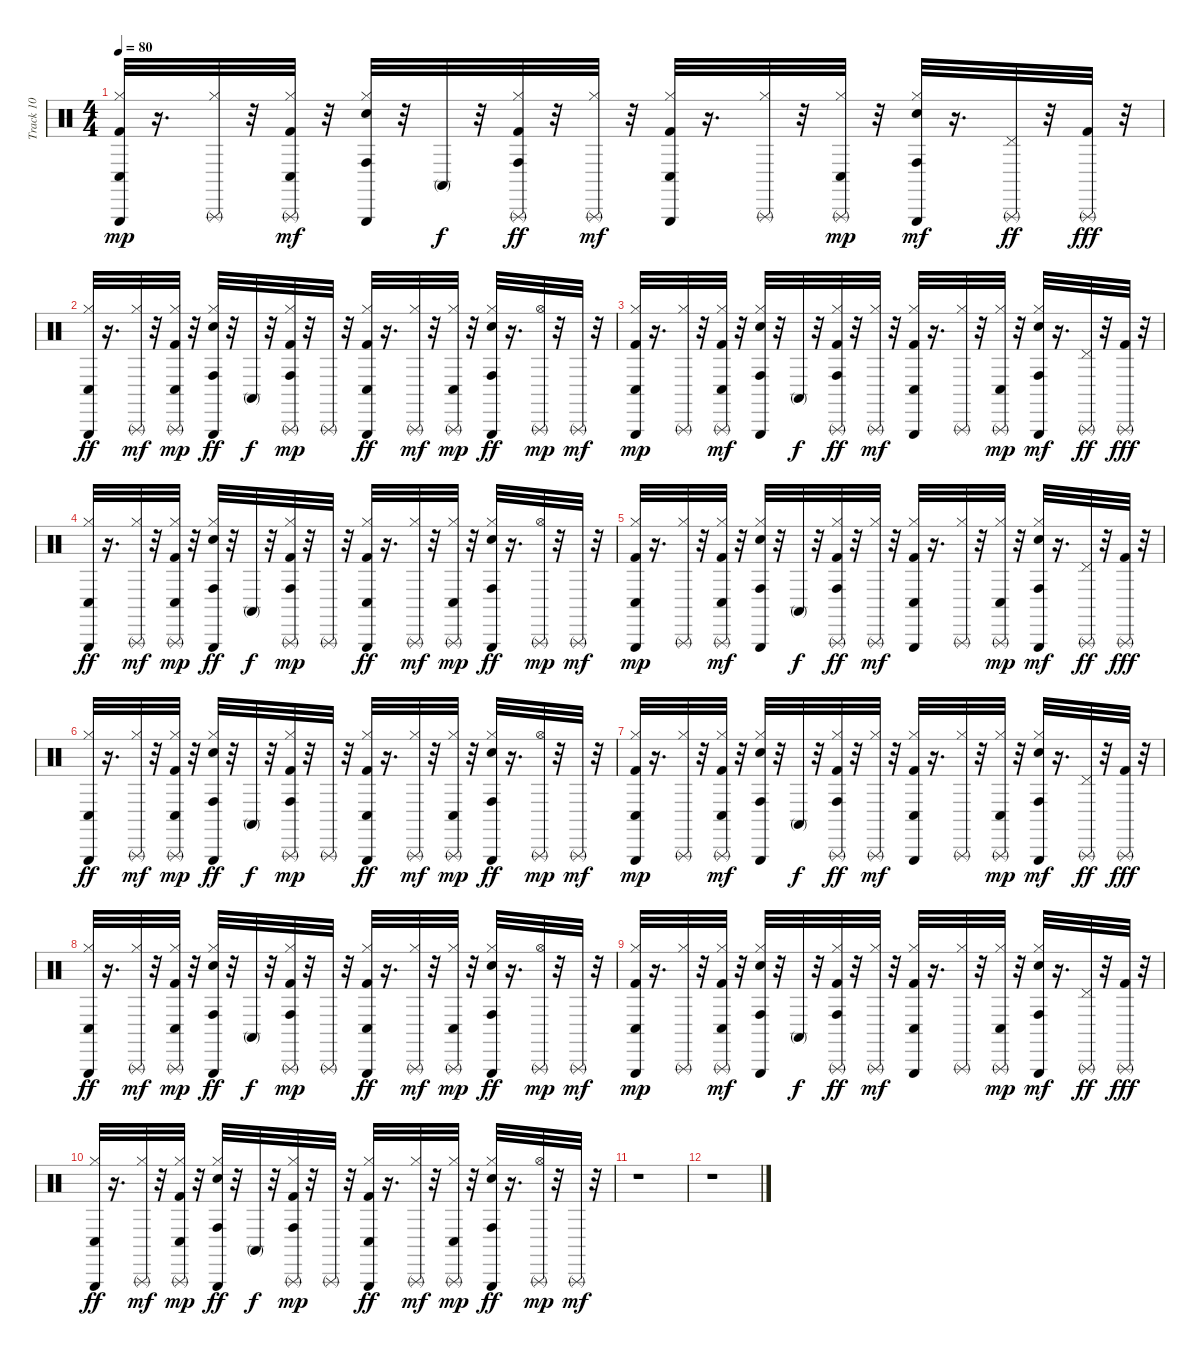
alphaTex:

\track ("Track 10" "Track 10") {instrument percussion}
\staff {score}
\articulation defaults
\ts (4 4)
\tempo 80
\clef neutral
\ks c
("Hi-Hat (closed)" "Kick (hit) 2" "Conga low (hit)" "Triangle (hit)").32{dy mp} r.16{d} ("Triangle (rnute)" "Hi-Hat (closed)").32 r.32 ("Triangle (rnute)" "Conga low (hit)" "Kick (hit) 2" "Hi-Hat (closed)").32{dy mf} r.32 ("Conga high (hit)" "Snare (hit) 2" "Hi-Hat (closed)" "Triangle (hit)").32 r.32 "Conga high (mute)".32{dy f} r.32 ("Triangle (rnute)" "Conga high (hit)" "Kick (hit) 2" "Hi-Hat (closed)").32{dy ff} r.32 ("Triangle (rnute)" "Hi-Hat (closed)").32{dy mf} r.32 ("Conga low (hit)" "Kick (hit) 2" "Hi-Hat (closed)" "Triangle (hit)").32 r.16{d} ("Triangle (rnute)" "Hi-Hat (closed)").32 r.32 ("Conga low (hit)" "Hi-Hat (closed)" "Triangle (rnute)").32{dy mp} r.32 ("Conga high (hit)" "Snare (hit) 2" "Hi-Hat (closed)" "Triangle (hit)").32{dy mf} r.16{d} ("Triangle (rnute)" "Pedal Hi-Hat (hit)").32{dy ff} r.32 ("Triangle (rnute)" "Kick (hit) 2").32{dy fff} r.32 |
("Triangle (hit)" "Conga low (hit)" "Hi-Hat (closed)").32{dy ff} r.16{d} ("Triangle (rnute)" "Hi-Hat (closed)").32{dy mf} r.32 ("Conga low (hit)" "Kick (hit) 2" "Hi-Hat (closed)" "Triangle (rnute)").32{dy mp} r.32 ("Triangle (hit)" "Conga high (hit)" "Snare (hit) 2" "Hi-Hat (closed)").32{dy ff} r.32 "Conga high (mute)".32{dy f} r.32 ("Hi-Hat (closed)" "Conga high (hit)" "Kick (hit) 2" "Triangle (rnute)").32{dy mp} r.32 "Triangle (rnute)".32 r.32 ("Triangle (hit)" "Conga low (hit)" "Kick (hit) 2" "Hi-Hat (closed)").32{dy ff} r.16{d} ("Hi-Hat (closed)" "Triangle (rnute)").32{dy mf} r.32 ("Conga low (hit)" "Hi-Hat (closed)" "Triangle (rnute)").32{dy mp} r.32 ("Triangle (hit)" "Conga high (hit)" "Snare (hit) 2" "Hi-Hat (closed)").32{dy ff} r.16{d} ("Triangle (rnute)" "Hi-Hat (open)").32{dy mp} r.32 "Triangle (rnute)".32{dy mf} r.32 |
("Hi-Hat (closed)" "Kick (hit) 2" "Conga low (hit)" "Triangle (hit)").32{dy mp volume 10} r.16{d} ("Triangle (rnute)" "Hi-Hat (closed)").32{volume 10} r.32 ("Triangle (rnute)" "Conga low (hit)" "Kick (hit) 2" "Hi-Hat (closed)").32{dy mf volume 10} r.32 ("Conga high (hit)" "Snare (hit) 2" "Hi-Hat (closed)" "Triangle (hit)").32 r.32 "Conga high (mute)".32{dy f volume 10} r.32 ("Triangle (rnute)" "Conga high (hit)" "Kick (hit) 2" "Hi-Hat (closed)").32{dy ff volume 10} r.32 ("Triangle (rnute)" "Hi-Hat (closed)").32{dy mf volume 9} r.32 ("Conga low (hit)" "Kick (hit) 2" "Hi-Hat (closed)" "Triangle (hit)").32 r.16{d} ("Triangle (rnute)" "Hi-Hat (closed)").32{volume 9} r.32 ("Conga low (hit)" "Hi-Hat (closed)" "Triangle (rnute)").32{dy mp} r.32 ("Conga high (hit)" "Snare (hit) 2" "Hi-Hat (closed)" "Triangle (hit)").32{dy mf volume 9} r.16{d} ("Triangle (rnute)" "Pedal Hi-Hat (hit)").32{dy ff volume 9} r.32 ("Triangle (rnute)" "Kick (hit) 2").32{dy fff} r.32 |
("Triangle (hit)" "Conga low (hit)" "Hi-Hat (closed)").32{dy ff volume 9} r.16{d} ("Triangle (rnute)" "Hi-Hat (closed)").32{dy mf volume 8} r.32 ("Conga low (hit)" "Kick (hit) 2" "Hi-Hat (closed)" "Triangle (rnute)").32{dy mp volume 8} r.32 ("Triangle (hit)" "Conga high (hit)" "Snare (hit) 2" "Hi-Hat (closed)").32{dy ff volume 8} r.32 "Conga high (mute)".32{dy f volume 8} r.32 ("Hi-Hat (closed)" "Conga high (hit)" "Kick (hit) 2" "Triangle (rnute)").32{dy mp} r.32 "Triangle (rnute)".32{volume 8} r.32 ("Triangle (hit)" "Conga low (hit)" "Kick (hit) 2" "Hi-Hat (closed)").32{dy ff volume 8} r.16{d} ("Hi-Hat (closed)" "Triangle (rnute)").32{dy mf volume 8} r.32 ("Conga low (hit)" "Hi-Hat (closed)" "Triangle (rnute)").32{dy mp volume 8} r.32 ("Triangle (hit)" "Conga high (hit)" "Snare (hit) 2" "Hi-Hat (closed)").32{dy ff volume 8} r.16{d} ("Triangle (rnute)" "Hi-Hat (open)").32{dy mp volume 7} r.32 "Triangle (rnute)".32{dy mf volume 7} r.32 |
("Hi-Hat (closed)" "Kick (hit) 2" "Conga low (hit)" "Triangle (hit)").32{dy mp} r.16{d} ("Triangle (rnute)" "Hi-Hat (closed)").32{volume 7} r.32 ("Triangle (rnute)" "Conga low (hit)" "Kick (hit) 2" "Hi-Hat (closed)").32{dy mf volume 7} r.32 ("Conga high (hit)" "Snare (hit) 2" "Hi-Hat (closed)" "Triangle (hit)").32 r.32 "Conga high (mute)".32{dy f volume 7} r.32 ("Triangle (rnute)" "Conga high (hit)" "Kick (hit) 2" "Hi-Hat (closed)").32{dy ff volume 7} r.32 ("Triangle (rnute)" "Hi-Hat (closed)").32{dy mf} r.32 ("Conga low (hit)" "Kick (hit) 2" "Hi-Hat (closed)" "Triangle (hit)").32{volume 6} r.16{d} ("Triangle (rnute)" "Hi-Hat (closed)").32{volume 6} r.32 ("Conga low (hit)" "Hi-Hat (closed)" "Triangle (rnute)").32{dy mp} r.32 ("Conga high (hit)" "Snare (hit) 2" "Hi-Hat (closed)" "Triangle (hit)").32{dy mf volume 6} r.16{d} ("Triangle (rnute)" "Pedal Hi-Hat (hit)").32{dy ff volume 6} r.32 ("Triangle (rnute)" "Kick (hit) 2").32{dy fff volume 6} r.32 |
("Triangle (hit)" "Conga low (hit)" "Hi-Hat (closed)").32{dy ff volume 6} r.16{d} ("Triangle (rnute)" "Hi-Hat (closed)").32{dy mf volume 6} r.32 ("Conga low (hit)" "Kick (hit) 2" "Hi-Hat (closed)" "Triangle (rnute)").32{dy mp volume 6} r.32 ("Triangle (hit)" "Conga high (hit)" "Snare (hit) 2" "Hi-Hat (closed)").32{dy ff volume 5} r.32 "Conga high (mute)".32{dy f} r.32 ("Hi-Hat (closed)" "Conga high (hit)" "Kick (hit) 2" "Triangle (rnute)").32{dy mp volume 5} r.32 "Triangle (rnute)".32{volume 5} r.32 ("Triangle (hit)" "Conga low (hit)" "Kick (hit) 2" "Hi-Hat (closed)").32{dy ff volume 5} r.16{d} ("Hi-Hat (closed)" "Triangle (rnute)").32{dy mf volume 5} r.32 ("Conga low (hit)" "Hi-Hat (closed)" "Triangle (rnute)").32{dy mp volume 5} r.32 ("Triangle (hit)" "Conga high (hit)" "Snare (hit) 2" "Hi-Hat (closed)").32{dy ff} r.16{d} ("Triangle (rnute)" "Hi-Hat (open)").32{dy mp volume 4} r.32 "Triangle (rnute)".32{dy mf volume 4} r.32 |
("Hi-Hat (closed)" "Kick (hit) 2" "Conga low (hit)" "Triangle (hit)").32{dy mp} r.16{d} ("Triangle (rnute)" "Hi-Hat (closed)").32{volume 4} r.32 ("Triangle (rnute)" "Conga low (hit)" "Kick (hit) 2" "Hi-Hat (closed)").32{dy mf} r.32 ("Conga high (hit)" "Snare (hit) 2" "Hi-Hat (closed)" "Triangle (hit)").32{volume 4} r.32 "Conga high (mute)".32{dy f volume 4} r.32 ("Triangle (rnute)" "Conga high (hit)" "Kick (hit) 2" "Hi-Hat (closed)").32{dy ff volume 4} r.32 ("Triangle (rnute)" "Hi-Hat (closed)").32{dy mf} r.32 ("Conga low (hit)" "Kick (hit) 2" "Hi-Hat (closed)" "Triangle (hit)").32{volume 4} r.16{d} ("Triangle (rnute)" "Hi-Hat (closed)").32{volume 4} r.32 ("Conga low (hit)" "Hi-Hat (closed)" "Triangle (rnute)").32{dy mp volume 3} r.32 ("Conga high (hit)" "Snare (hit) 2" "Hi-Hat (closed)" "Triangle (hit)").32{dy mf volume 3} r.16{d} ("Triangle (rnute)" "Pedal Hi-Hat (hit)").32{dy ff volume 3} r.32 ("Triangle (rnute)" "Kick (hit) 2").32{dy fff volume 3} r.32 |
("Triangle (hit)" "Conga low (hit)" "Hi-Hat (closed)").32{dy ff volume 3} r.16{d} ("Triangle (rnute)" "Hi-Hat (closed)").32{dy mf volume 3} r.32 ("Conga low (hit)" "Kick (hit) 2" "Hi-Hat (closed)" "Triangle (rnute)").32{dy mp volume 3} r.32 ("Triangle (hit)" "Conga high (hit)" "Snare (hit) 2" "Hi-Hat (closed)").32{dy ff volume 2} r.32 "Conga high (mute)".32{dy f} r.32 ("Hi-Hat (closed)" "Conga high (hit)" "Kick (hit) 2" "Triangle (rnute)").32{dy mp volume 2} r.32 "Triangle (rnute)".32{volume 2} r.32 ("Triangle (hit)" "Conga low (hit)" "Kick (hit) 2" "Hi-Hat (closed)").32{dy ff} r.16{d} ("Hi-Hat (closed)" "Triangle (rnute)").32{dy mf volume 2} r.32 ("Conga low (hit)" "Hi-Hat (closed)" "Triangle (rnute)").32{dy mp volume 2} r.32 ("Triangle (hit)" "Conga high (hit)" "Snare (hit) 2" "Hi-Hat (closed)").32{dy ff} r.16{d} ("Triangle (rnute)" "Hi-Hat (open)").32{dy mp volume 2} r.32 "Triangle (rnute)".32{dy mf} r.32 |
("Hi-Hat (closed)" "Kick (hit) 2" "Conga low (hit)" "Triangle (hit)").32{dy mp volume 2} r.16{d} ("Triangle (rnute)" "Hi-Hat (closed)").32{volume 1} r.32 ("Triangle (rnute)" "Conga low (hit)" "Kick (hit) 2" "Hi-Hat (closed)").32{dy mf} r.32 ("Conga high (hit)" "Snare (hit) 2" "Hi-Hat (closed)" "Triangle (hit)").32{volume 1} r.32 "Conga high (mute)".32{dy f volume 1} r.32 ("Triangle (rnute)" "Conga high (hit)" "Kick (hit) 2" "Hi-Hat (closed)").32{dy ff} r.32 ("Triangle (rnute)" "Hi-Hat (closed)").32{dy mf volume 1} r.32 ("Conga low (hit)" "Kick (hit) 2" "Hi-Hat (closed)" "Triangle (hit)").32{volume 1} r.16{d} ("Triangle (rnute)" "Hi-Hat (closed)").32{volume 1} r.32 ("Conga low (hit)" "Hi-Hat (closed)" "Triangle (rnute)").32{dy mp volume 0} r.32 ("Conga high (hit)" "Snare (hit) 2" "Hi-Hat (closed)" "Triangle (hit)").32{dy mf volume 0} r.16{d} ("Triangle (rnute)" "Pedal Hi-Hat (hit)").32{dy ff volume 0} r.32 ("Triangle (rnute)" "Kick (hit) 2").32{dy fff volume 0} r.32 |
("Triangle (hit)" "Conga low (hit)" "Hi-Hat (closed)").32{dy ff volume 0} r.16{d} ("Triangle (rnute)" "Hi-Hat (closed)").32{dy mf} r.32 ("Conga low (hit)" "Kick (hit) 2" "Hi-Hat (closed)" "Triangle (rnute)").32{dy mp} r.32 ("Triangle (hit)" "Conga high (hit)" "Snare (hit) 2" "Hi-Hat (closed)").32{dy ff} r.32 "Conga high (mute)".32{dy f} r.32 ("Hi-Hat (closed)" "Conga high (hit)" "Kick (hit) 2" "Triangle (rnute)").32{dy mp} r.32 "Triangle (rnute)".32 r.32 ("Triangle (hit)" "Conga low (hit)" "Kick (hit) 2" "Hi-Hat (closed)").32{dy ff} r.16{d} ("Hi-Hat (closed)" "Triangle (rnute)").32{dy mf} r.32 ("Conga low (hit)" "Hi-Hat (closed)" "Triangle (rnute)").32{dy mp} r.32 ("Triangle (hit)" "Conga high (hit)" "Snare (hit) 2" "Hi-Hat (closed)").32{dy ff} r.16{d} ("Triangle (rnute)" "Hi-Hat (open)").32{dy mp} r.32 "Triangle (rnute)".32{dy mf} r.32 |
r.1 |
r.1
